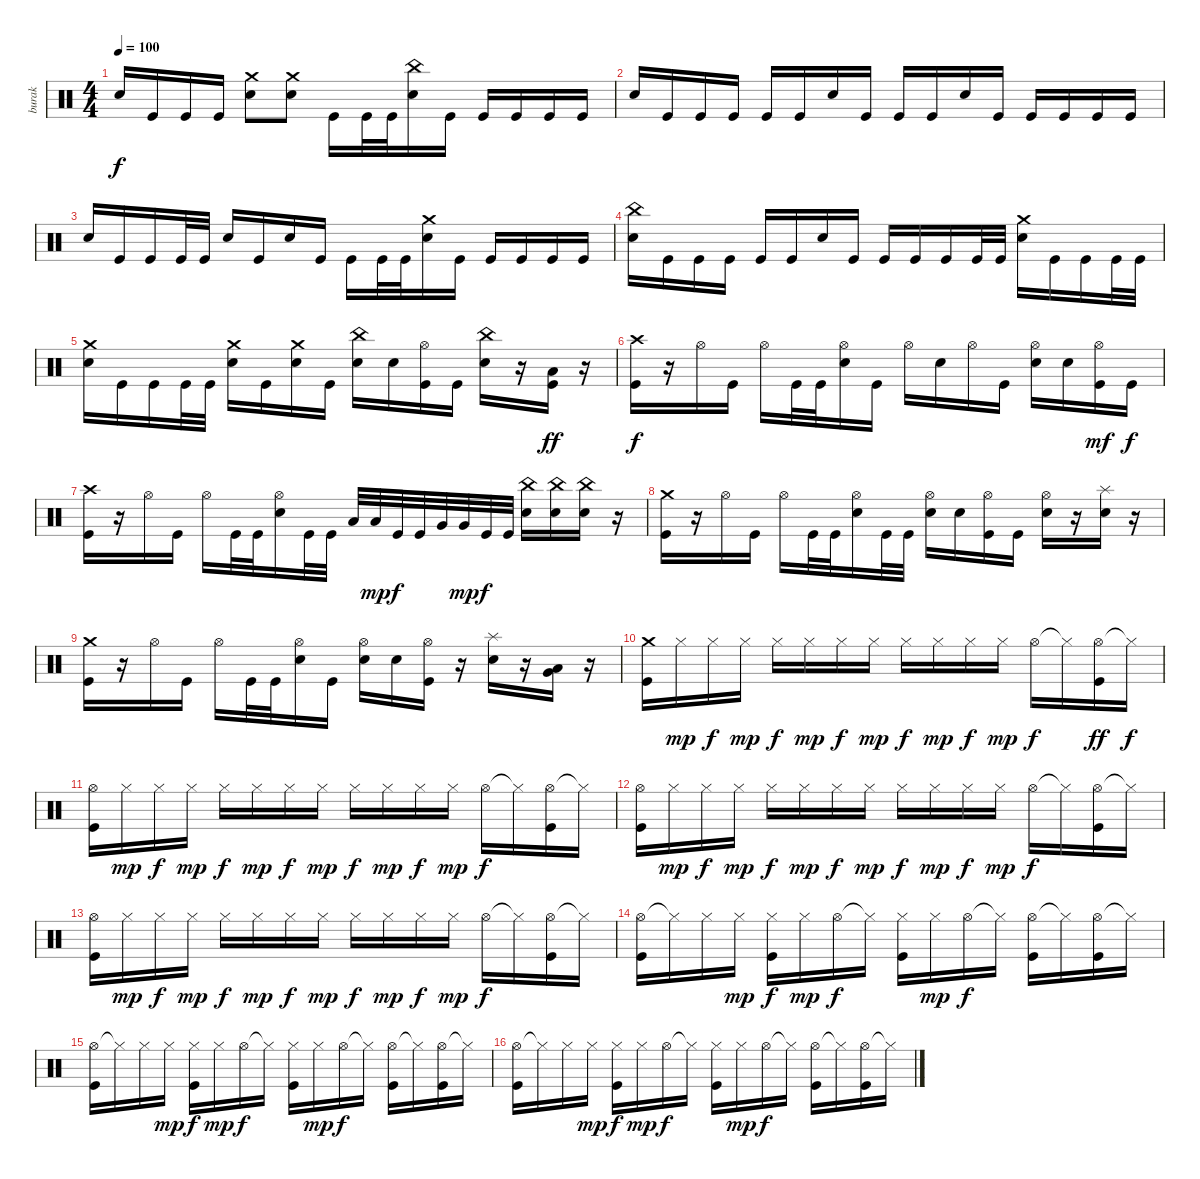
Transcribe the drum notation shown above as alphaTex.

\track ("burak" "burak") {instrument percussion}
\staff {score}
\articulation defaults
\ts (4 4)
\tempo 100
\clef neutral
\ks c "Electric Snare (hit)".16{dy f volume 0} "Kick (hit)".16{volume 13} "Kick (hit)".16 "Kick (hit)".16
("Crash medium (hit)" "Electric Snare (hit)").8 ("Crash medium (hit)" "Electric Snare (hit)").8 "Kick (hit)".16 "Kick (hit)".32 "Kick (hit)".32 ("China (hit)" "Electric Snare (hit)").16 "Kick (hit)".16 "Kick (hit)".16 "Kick (hit)".16 "Kick (hit)".16 "Kick (hit)".16 |
"Electric Snare (hit)".16 "Kick (hit)".16 "Kick (hit)".16 "Kick (hit)".16 "Kick (hit)".16 "Kick (hit)".16 "Electric Snare (hit)".16 "Kick (hit)".16 "Kick (hit)".16 "Kick (hit)".16 "Electric Snare (hit)".16 "Kick (hit)".16 "Kick (hit)".16 "Kick (hit)".16 "Kick (hit)".16 "Kick (hit)".16 |
"Electric Snare (hit)".16 "Kick (hit)".16 "Kick (hit)".16 "Kick (hit)".32 "Kick (hit)".32 "Electric Snare (hit)".16 "Kick (hit)".16 "Electric Snare (hit)".16 "Kick (hit)".16 "Kick (hit)".16 "Kick (hit)".32 "Kick (hit)".32 ("Crash medium (hit)" "Electric Snare (hit)").16 "Kick (hit)".16 "Kick (hit)".16 "Kick (hit)".16 "Kick (hit)".16 "Kick (hit)".16 |
("China (hit)" "Electric Snare (hit)").16 "Kick (hit)".16 "Kick (hit)".16 "Kick (hit)".16 "Kick (hit)".16 "Kick (hit)".16 "Electric Snare (hit)".16 "Kick (hit)".16 "Kick (hit)".16 "Kick (hit)".16 "Kick (hit)".16 "Kick (hit)".32 "Kick (hit)".32 ("Crash medium (hit)" "Electric Snare (hit)").16 "Kick (hit)".16 "Kick (hit)".16 "Kick (hit)".32 "Kick (hit)".32 |
("Crash medium (hit)" "Electric Snare (hit)").16 "Kick (hit)".16 "Kick (hit)".16 "Kick (hit)".32 "Kick (hit)".32 ("Crash medium (hit)" "Electric Snare (hit)").16 "Kick (hit)".16 ("Crash medium (hit)" "Electric Snare (hit)").16 "Kick (hit)".16 ("China (hit)" "Electric Snare (hit)").16 "Electric Snare (hit)".16 ("Hi-Hat (open)" "Kick (hit)").16 "Kick (hit)".16 ("China (hit)" "Electric Snare (hit)").16 r.16 ("Low Floor Tom (hit)" "Kick (hit)").16{dy ff} r.16 |
("Crash high (hit)" "Kick (hit)").16{dy f} r.16 "Hi-Hat (open)".16 "Kick (hit)".16 "Hi-Hat (open)".16 "Kick (hit)".32 "Kick (hit)".32 ("Hi-Hat (open)" "Electric Snare (hit)").16 "Kick (hit)".16 "Hi-Hat (open)".16 "Electric Snare (hit)".16 "Hi-Hat (open)".16 "Kick (hit)".16 ("Hi-Hat (open)" "Electric Snare (hit)").16 "Electric Snare (hit)".16 ("Hi-Hat (open)" "Kick (hit)").16{dy mf} "Kick (hit)".16{dy f} |
("Crash high (hit)" "Kick (hit)").16 r.16 "Hi-Hat (open)".16 "Kick (hit)".16 "Hi-Hat (open)".16 "Kick (hit)".32 "Kick (hit)".32 ("Hi-Hat (open)" "Electric Snare (hit)").16 "Kick (hit)".32 "Kick (hit)".32 "Low Tom (hit)".32 "Low Tom (hit)".32{dy mp} "Kick (hit)".32{dy f} "Kick (hit)".32 "Very Low Tom (hit)".32 "Very Low Tom (hit)".32{dy mp} "Kick (hit)".32{dy f} "Kick (hit)".32 ("China (hit)" "Electric Snare (hit)").16 ("China (hit)" "Electric Snare (hit)").16 ("China (hit)" "Electric Snare (hit)").16 r.16 |
("Crash medium (hit)" "Kick (hit)").16 r.16 "Hi-Hat (open)".16 "Kick (hit)".16 "Hi-Hat (open)".16 "Kick (hit)".32 "Kick (hit)".32 ("Hi-Hat (open)" "Electric Snare (hit)").16 "Kick (hit)".32 "Kick (hit)".32 ("Hi-Hat (open)" "Electric Snare (hit)").16 "Electric Snare (hit)".16 ("Hi-Hat (open)" "Kick (hit)").16 "Kick (hit)".16 ("Hi-Hat (open)" "Electric Snare (hit)").16 r.16 ("Splash (hit)" "Electric Snare (hit)").16 r.16 |
("Crash medium (hit)" "Kick (hit)").16 r.16 "Hi-Hat (open)".16 "Kick (hit)".16 "Hi-Hat (open)".16 "Kick (hit)".32 "Kick (hit)".32 ("Hi-Hat (open)" "Electric Snare (hit)").16 "Kick (hit)".16 ("Hi-Hat (open)" "Electric Snare (hit)").16 "Electric Snare (hit)".16 ("Hi-Hat (open)" "Kick (hit)").16 r.16 ("Splash (hit)" "Electric Snare (hit)").16 r.16 ("Low Tom (hit)" "Very Low Tom (hit)").16 r.16 |
("Crash medium (hit)" "Kick (hit)").16 "Hi-Hat (closed)".16{dy mp} "Hi-Hat (closed)".16{dy f} "Hi-Hat (closed)".16{dy mp} "Hi-Hat (closed)".16{dy f} "Hi-Hat (closed)".16{dy mp} "Hi-Hat (closed)".16{dy f} "Hi-Hat (closed)".16{dy mp} "Hi-Hat (closed)".16{dy f} "Hi-Hat (closed)".16{dy mp} "Hi-Hat (closed)".16{dy f} "Hi-Hat (closed)".16{dy mp} "Hi-Hat (open)".16{dy f} "Hi-Hat (closed)"{t}.16 ("Hi-Hat (open)" "Kick (hit)").16{dy ff} "Hi-Hat (closed)"{t}.16{dy f} |
("Hi-Hat (open)" "Kick (hit)").16 "Hi-Hat (closed)".16{dy mp} "Hi-Hat (closed)".16{dy f} "Hi-Hat (closed)".16{dy mp} "Hi-Hat (closed)".16{dy f} "Hi-Hat (closed)".16{dy mp} "Hi-Hat (closed)".16{dy f} "Hi-Hat (closed)".16{dy mp} "Hi-Hat (closed)".16{dy f} "Hi-Hat (closed)".16{dy mp} "Hi-Hat (closed)".16{dy f} "Hi-Hat (closed)".16{dy mp} "Hi-Hat (open)".16{dy f} "Hi-Hat (closed)"{t}.16 ("Hi-Hat (open)" "Kick (hit)").16 "Hi-Hat (closed)"{t}.16 |
("Hi-Hat (open)" "Kick (hit)").16 "Hi-Hat (closed)".16{dy mp} "Hi-Hat (closed)".16{dy f} "Hi-Hat (closed)".16{dy mp} "Hi-Hat (closed)".16{dy f} "Hi-Hat (closed)".16{dy mp} "Hi-Hat (closed)".16{dy f} "Hi-Hat (closed)".16{dy mp} "Hi-Hat (closed)".16{dy f} "Hi-Hat (closed)".16{dy mp} "Hi-Hat (closed)".16{dy f} "Hi-Hat (closed)".16{dy mp} "Hi-Hat (open)".16{dy f} "Hi-Hat (closed)"{t}.16 ("Hi-Hat (open)" "Kick (hit)").16 "Hi-Hat (closed)"{t}.16 |
("Hi-Hat (open)" "Kick (hit)").16 "Hi-Hat (closed)".16{dy mp} "Hi-Hat (closed)".16{dy f} "Hi-Hat (closed)".16{dy mp} "Hi-Hat (closed)".16{dy f} "Hi-Hat (closed)".16{dy mp} "Hi-Hat (closed)".16{dy f} "Hi-Hat (closed)".16{dy mp} "Hi-Hat (closed)".16{dy f} "Hi-Hat (closed)".16{dy mp} "Hi-Hat (closed)".16{dy f} "Hi-Hat (closed)".16{dy mp} "Hi-Hat (open)".16{dy f} "Hi-Hat (closed)"{t}.16 ("Hi-Hat (open)" "Kick (hit)").16 "Hi-Hat (closed)"{t}.16 |
("Hi-Hat (open)" "Kick (hit)").16 "Hi-Hat (closed)"{t}.16 "Hi-Hat (closed)".16 "Hi-Hat (closed)".16{dy mp} ("Hi-Hat (closed)" "Kick (hit)").16{dy f} "Hi-Hat (closed)".16{dy mp} "Hi-Hat (open)".16{dy f} "Hi-Hat (closed)"{t}.16 ("Hi-Hat (closed)" "Kick (hit)").16 "Hi-Hat (closed)".16{dy mp} "Hi-Hat (open)".16{dy f} "Hi-Hat (closed)"{t}.16 ("Hi-Hat (open)" "Kick (hit)").16 "Hi-Hat (closed)"{t}.16 ("Hi-Hat (open)" "Kick (hit)").16 "Hi-Hat (closed)"{t}.16 |
("Hi-Hat (open)" "Kick (hit)").16 "Hi-Hat (closed)"{t}.16 "Hi-Hat (closed)".16 "Hi-Hat (closed)".16{dy mp} ("Hi-Hat (closed)" "Kick (hit)").16{dy f} "Hi-Hat (closed)".16{dy mp} "Hi-Hat (open)".16{dy f} "Hi-Hat (closed)"{t}.16 ("Hi-Hat (closed)" "Kick (hit)").16 "Hi-Hat (closed)".16{dy mp} "Hi-Hat (open)".16{dy f} "Hi-Hat (closed)"{t}.16 ("Hi-Hat (open)" "Kick (hit)").16 "Hi-Hat (closed)"{t}.16 ("Hi-Hat (open)" "Kick (hit)").16 "Hi-Hat (closed)"{t}.16 |
("Hi-Hat (open)" "Kick (hit)").16 "Hi-Hat (closed)"{t}.16 "Hi-Hat (closed)".16 "Hi-Hat (closed)".16{dy mp} ("Hi-Hat (closed)" "Kick (hit)").16{dy f} "Hi-Hat (closed)".16{dy mp} "Hi-Hat (open)".16{dy f} "Hi-Hat (closed)"{t}.16 ("Hi-Hat (closed)" "Kick (hit)").16 "Hi-Hat (closed)".16{dy mp} "Hi-Hat (open)".16{dy f} "Hi-Hat (closed)"{t}.16 ("Hi-Hat (open)" "Kick (hit)").16 "Hi-Hat (closed)"{t}.16 ("Hi-Hat (open)" "Kick (hit)").16 "Hi-Hat (closed)"{t}.16
